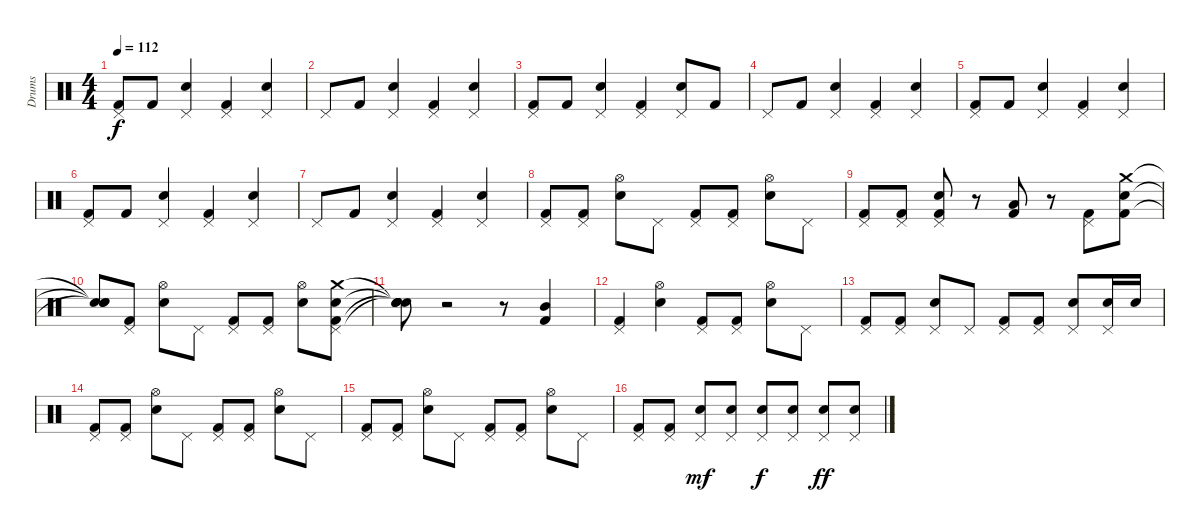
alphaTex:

\track ("Drums" "Drums") {instrument percussion}
\staff {score}
\articulation defaults
\ts (4 4)
\tempo 112
\clef neutral
\ks c
("Pedal Hi-Hat (hit)" "Kick (hit) 2").8{dy f} "Kick (hit) 2".8 ("Pedal Hi-Hat (hit)" "Snare (hit) 2").4 ("Pedal Hi-Hat (hit)" "Kick (hit) 2").4 ("Pedal Hi-Hat (hit)" "Snare (hit) 2").4 |
"Pedal Hi-Hat (hit)".8 "Kick (hit) 2".8 ("Pedal Hi-Hat (hit)" "Snare (hit) 2").4 ("Pedal Hi-Hat (hit)" "Kick (hit) 2").4 ("Pedal Hi-Hat (hit)" "Snare (hit) 2").4 |
("Pedal Hi-Hat (hit)" "Kick (hit) 2").8 "Kick (hit) 2".8 ("Pedal Hi-Hat (hit)" "Snare (hit) 2").4 ("Pedal Hi-Hat (hit)" "Kick (hit) 2").4 ("Pedal Hi-Hat (hit)" "Snare (hit) 2").8 "Kick (hit) 2".8 |
"Pedal Hi-Hat (hit)".8 "Kick (hit) 2".8 ("Pedal Hi-Hat (hit)" "Snare (hit) 2").4 ("Pedal Hi-Hat (hit)" "Kick (hit) 2").4 ("Pedal Hi-Hat (hit)" "Snare (hit) 2").4 |
("Pedal Hi-Hat (hit)" "Kick (hit) 2").8 "Kick (hit) 2".8 ("Pedal Hi-Hat (hit)" "Snare (hit) 2").4 ("Pedal Hi-Hat (hit)" "Kick (hit) 2").4 ("Pedal Hi-Hat (hit)" "Snare (hit) 2").4 |
("Pedal Hi-Hat (hit)" "Kick (hit) 2").8 "Kick (hit) 2".8 ("Pedal Hi-Hat (hit)" "Snare (hit) 2").4 ("Pedal Hi-Hat (hit)" "Kick (hit) 2").4 ("Pedal Hi-Hat (hit)" "Snare (hit) 2").4 |
"Pedal Hi-Hat (hit)".8 "Kick (hit) 2".8 ("Pedal Hi-Hat (hit)" "Snare (hit) 2").4 ("Pedal Hi-Hat (hit)" "Kick (hit) 2").4 ("Pedal Hi-Hat (hit)" "Snare (hit) 2").4 |
("Pedal Hi-Hat (hit)" "Kick (hit) 2").8 ("Pedal Hi-Hat (hit)" "Kick (hit) 2").8 ("Hi-Hat (open)" "Snare (hit) 2").8 "Pedal Hi-Hat (hit)".8 ("Pedal Hi-Hat (hit)" "Kick (hit) 2").8 ("Pedal Hi-Hat (hit)" "Kick (hit) 2").8 ("Hi-Hat (open)" "Snare (hit) 2").8 "Pedal Hi-Hat (hit)".8 |
("Pedal Hi-Hat (hit)" "Kick (hit) 2").8 ("Pedal Hi-Hat (hit)" "Kick (hit) 2").8 ("Pedal Hi-Hat (hit)" "Snare (hit) 2" "Kick (hit) 2").8 r.8 ("Kick (hit) 2" "Low Tom (hit)").8 r.8 ("Kick (hit) 2" "Pedal Hi-Hat (hit)").8 ("Crash medium (hit)" "Snare (hit) 2" "Kick (hit) 2").8 |
("Snare (hit)"{t} "Snare (hit)"{t} "Snare (hit)"{t}).8 ("Pedal Hi-Hat (hit)" "Kick (hit) 2").8 ("Snare (hit) 2" "Hi-Hat (open)").8 "Pedal Hi-Hat (hit)".8 ("Pedal Hi-Hat (hit)" "Kick (hit) 2").8 ("Pedal Hi-Hat (hit)" "Kick (hit) 2").8 ("Hi-Hat (open)" "Snare (hit) 2").8 ("Crash medium (hit)" "Pedal Hi-Hat (hit)" "Snare (hit) 2" "Kick (hit) 2").8 |
("Snare (hit)"{t} "Snare (hit)"{t} "Snare (hit)"{t} "Snare (hit)"{t}).8 r.2 r.8 ("Mid Tom (hit)" "Kick (hit) 2").4 |
("Pedal Hi-Hat (hit)" "Kick (hit) 2").4 ("Hi-Hat (open)" "Snare (hit) 2").4 ("Pedal Hi-Hat (hit)" "Kick (hit) 2").8 ("Pedal Hi-Hat (hit)" "Kick (hit) 2").8 ("Hi-Hat (open)" "Snare (hit) 2").8 "Pedal Hi-Hat (hit)".8 |
("Kick (hit) 2" "Pedal Hi-Hat (hit)").8 ("Pedal Hi-Hat (hit)" "Kick (hit) 2").8 ("Pedal Hi-Hat (hit)" "Snare (hit) 2").8 "Pedal Hi-Hat (hit)".8 ("Pedal Hi-Hat (hit)" "Kick (hit) 2").8 ("Pedal Hi-Hat (hit)" "Kick (hit) 2").8 ("Pedal Hi-Hat (hit)" "Snare (hit) 2").8 ("Pedal Hi-Hat (hit)" "Snare (hit) 2").16 "Snare (hit) 2".16 |
("Pedal Hi-Hat (hit)" "Kick (hit) 2").8 ("Pedal Hi-Hat (hit)" "Kick (hit) 2").8 ("Hi-Hat (open)" "Snare (hit) 2").8 "Pedal Hi-Hat (hit)".8 ("Pedal Hi-Hat (hit)" "Kick (hit) 2").8 ("Pedal Hi-Hat (hit)" "Kick (hit) 2").8 ("Hi-Hat (open)" "Snare (hit) 2").8 "Pedal Hi-Hat (hit)".8 |
("Pedal Hi-Hat (hit)" "Kick (hit) 2").8 ("Pedal Hi-Hat (hit)" "Kick (hit) 2").8 ("Hi-Hat (open)" "Snare (hit) 2").8 "Pedal Hi-Hat (hit)".8 ("Pedal Hi-Hat (hit)" "Kick (hit) 2").8 ("Pedal Hi-Hat (hit)" "Kick (hit) 2").8 ("Hi-Hat (open)" "Snare (hit) 2").8 "Pedal Hi-Hat (hit)".8 |
("Pedal Hi-Hat (hit)" "Kick (hit) 2").8 ("Pedal Hi-Hat (hit)" "Kick (hit) 2").8 ("Pedal Hi-Hat (hit)" "Snare (hit) 2").8{dy mf} ("Pedal Hi-Hat (hit)" "Snare (hit) 2").8 ("Pedal Hi-Hat (hit)" "Snare (hit) 2").8{dy f} ("Pedal Hi-Hat (hit)" "Snare (hit) 2").8 ("Pedal Hi-Hat (hit)" "Snare (hit) 2").8{dy ff} ("Pedal Hi-Hat (hit)" "Snare (hit) 2").8
